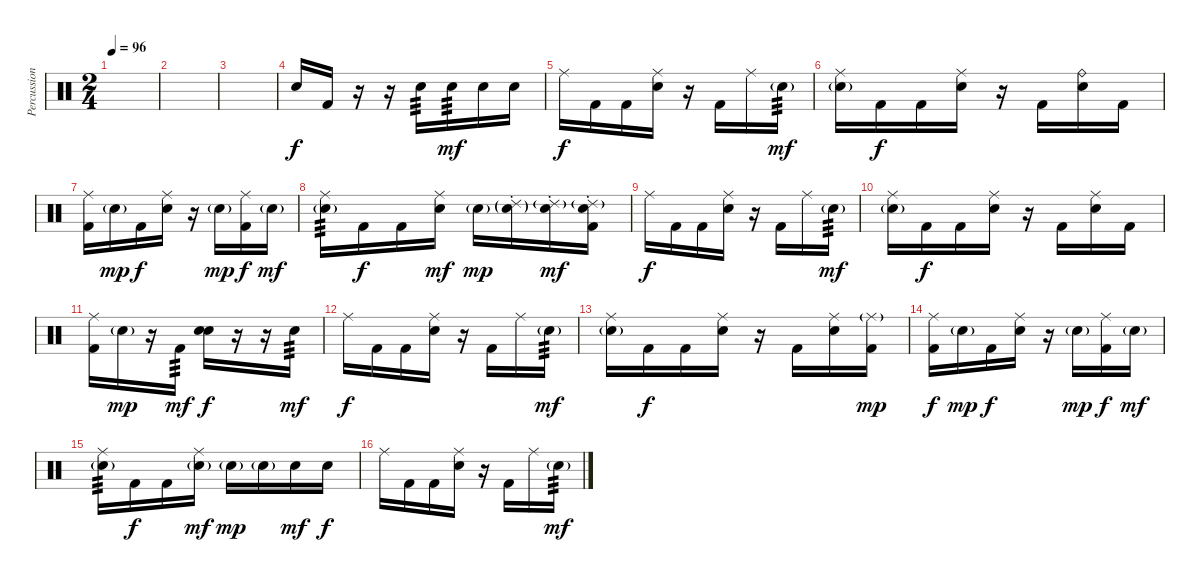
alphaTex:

\track ("Percussion" "Percussion") {instrument percussion}
\staff {score}
\articulation defaults
\ts (2 4)
\tempo 96
\clef neutral
\ks c
|
|
|
"Snare (hit) 2".16 "Kick (hit) 2".16 r.16 r.16 "Snare (hit) 2".16{tp 3} "Snare (hit) 2".16{tp 3 dy mf} "Snare (hit) 2".16 "Snare (hit) 2".16 |
"Ride (middle)".16{dy f} "Kick (hit) 2".16 "Kick (hit) 2".16 ("Ride (middle)" "Snare (hit) 2").16 r.16 "Kick (hit) 2".16 "Ride (middle)".16 "Snare (hit) 2"{g}.16{tp 3 dy mf} |
("Ride (middle)" "Snare (hit) 2"{g}).16 "Kick (hit) 2".16{dy f} "Kick (hit) 2".16 ("Ride (middle)" "Snare (hit) 2").16 r.16 "Kick (hit) 2".16 ("Ride (bell)" "Snare (hit) 2").16 "Kick (hit) 2".16 |
("Ride (middle)" "Kick (hit) 2").16 "Snare (hit) 2"{g}.16{dy mp} "Kick (hit) 2".16{dy f} ("Ride (middle)" "Snare (hit) 2").16 r.16 "Snare (hit) 2"{g}.16{dy mp} ("Ride (middle)" "Kick (hit) 2").16{dy f} "Snare (hit) 2"{g}.16{dy mf} |
("Ride (middle)" "Snare (hit) 2"{g}).16{tp 3} "Kick (hit) 2".16{dy f} "Kick (hit) 2".16 ("Ride (middle)" "Snare (hit) 2").16{dy mf} "Snare (hit) 2"{g}.16{dy mp} ("Ride (choke) 2"{g} "Snare (hit) 2"{g}).16 ("Ride (choke) 2"{g} "Snare (hit) 2").16{dy mf} ("Ride (choke) 2"{g} "Snare (hit) 2" "Kick (hit) 2").16 |
"Ride (middle)".16{dy f} "Kick (hit) 2".16 "Kick (hit) 2".16 ("Ride (middle)" "Snare (hit) 2").16 r.16 "Kick (hit) 2".16 "Ride (middle)".16 "Snare (hit) 2"{g}.16{tp 3 dy mf} |
("Ride (middle)" "Snare (hit) 2"{g}).16 "Kick (hit) 2".16{dy f} "Kick (hit) 2".16 ("Ride (middle)" "Snare (hit) 2").16 r.16 "Kick (hit) 2".16 ("Ride (middle)" "Snare (hit) 2").16 "Kick (hit) 2".16 |
("Ride (middle)" "Kick (hit) 2").16 "Snare (hit) 2"{g}.16{dy mp} r.16 "Kick (hit) 2".16{tp 3 dy mf} ("Snare (hit)" "Snare (hit) 2").16{dy f} r.16 r.16 "Snare (hit) 2".16{tp 3 dy mf} |
"Ride (middle)".16{dy f} "Kick (hit) 2".16 "Kick (hit) 2".16 ("Ride (middle)" "Snare (hit) 2").16 r.16 "Kick (hit) 2".16 "Ride (middle)".16 "Snare (hit) 2"{g}.16{tp 3 dy mf} |
("Ride (middle)" "Snare (hit) 2"{g}).16 "Kick (hit) 2".16{dy f} "Kick (hit) 2".16 ("Ride (middle)" "Snare (hit) 2").16 r.16 "Kick (hit) 2".16 ("Ride (middle)" "Snare (hit) 2").16 ("Ride (middle)"{g} "Kick (hit) 2").16{dy mp} |
("Ride (middle)" "Kick (hit) 2").16{dy f} "Snare (hit) 2"{g}.16{dy mp} "Kick (hit) 2".16{dy f} ("Ride (middle)" "Snare (hit) 2").16 r.16 "Snare (hit) 2"{g}.16{dy mp} ("Ride (middle)" "Kick (hit) 2").16{dy f} "Snare (hit) 2"{g}.16{dy mf} |
("Ride (middle)" "Snare (hit) 2"{g}).16{tp 3} "Kick (hit) 2".16{dy f} "Kick (hit) 2".16 ("Ride (middle)" "Snare (hit) 2"{g}).16{dy mf} "Snare (hit) 2"{g}.16{dy mp} "Snare (hit) 2"{g}.16 "Snare (hit) 2".16{dy mf} "Snare (hit) 2".16{dy f} |
"Ride (middle)".16 "Kick (hit) 2".16 "Kick (hit) 2".16 ("Ride (middle)" "Snare (hit) 2").16 r.16 "Kick (hit) 2".16 "Ride (middle)".16 "Snare (hit) 2"{g}.16{tp 3 dy mf}
